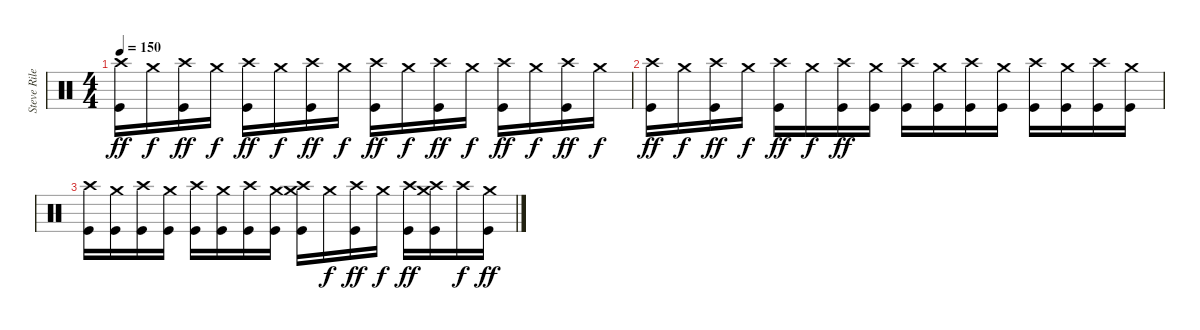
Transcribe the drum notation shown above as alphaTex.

\track ("Steve Riley" "Steve Rile") {instrument percussion}
\staff {score}
\articulation defaults
\ts (4 4)
\tempo 150
\clef neutral
\ks c
("Crash high (hit)" "Kick (hit)").16{dy ff} "Crash medium (hit)".16{dy f} ("Crash high (hit)" "Kick (hit)").16{dy ff} "Crash medium (hit)".16{dy f} ("Crash high (hit)" "Kick (hit)").16{dy ff} "Crash medium (hit)".16{dy f} ("Crash high (hit)" "Kick (hit)").16{dy ff} "Crash medium (hit)".16{dy f} ("Crash high (hit)" "Kick (hit)").16{dy ff} "Crash medium (hit)".16{dy f} ("Crash high (hit)" "Kick (hit)").16{dy ff} "Crash medium (hit)".16{dy f} ("Crash high (hit)" "Kick (hit)").16{dy ff} "Crash medium (hit)".16{dy f} ("Crash high (hit)" "Kick (hit)").16{dy ff} "Crash medium (hit)".16{dy f} |
("Crash high (hit)" "Kick (hit)").16{dy ff} "Crash medium (hit)".16{dy f} ("Crash high (hit)" "Kick (hit)").16{dy ff} "Crash medium (hit)".16{dy f} ("Crash high (hit)" "Kick (hit)").16{dy ff} "Crash medium (hit)".16{dy f} ("Crash high (hit)" "Kick (hit)").16{dy ff} ("Crash medium (hit)" "Kick (hit)").16 ("Crash high (hit)" "Kick (hit)").16 ("Crash medium (hit)" "Kick (hit)").16 ("Crash high (hit)" "Kick (hit)").16 ("Crash medium (hit)" "Kick (hit)").16 ("Crash high (hit)" "Kick (hit)").16 ("Crash medium (hit)" "Kick (hit)").16 ("Crash high (hit)" "Kick (hit)").16 ("Crash medium (hit)" "Kick (hit)").16 |
("Crash high (hit)" "Kick (hit)").16 ("Crash medium (hit)" "Kick (hit)").16 ("Crash high (hit)" "Kick (hit)").16 ("Crash medium (hit)" "Kick (hit)").16 ("Crash high (hit)" "Kick (hit)").16 ("Crash medium (hit)" "Kick (hit)").16 ("Crash high (hit)" "Kick (hit)").16 ("Crash medium (hit)" "Kick (hit)").16 ("Crash high (hit)" "Crash medium (hit)" "Kick (hit)").16 "Crash medium (hit)".16{dy f} ("Crash high (hit)" "Kick (hit)").16{dy ff} "Crash medium (hit)".16{dy f} ("Crash high (hit)" "Kick (hit)").16{dy ff} ("Crash high (hit)" "Crash medium (hit)" "Kick (hit)").16 "Crash high (hit)".16{dy f} ("Crash medium (hit)" "Kick (hit)").16{dy ff}
